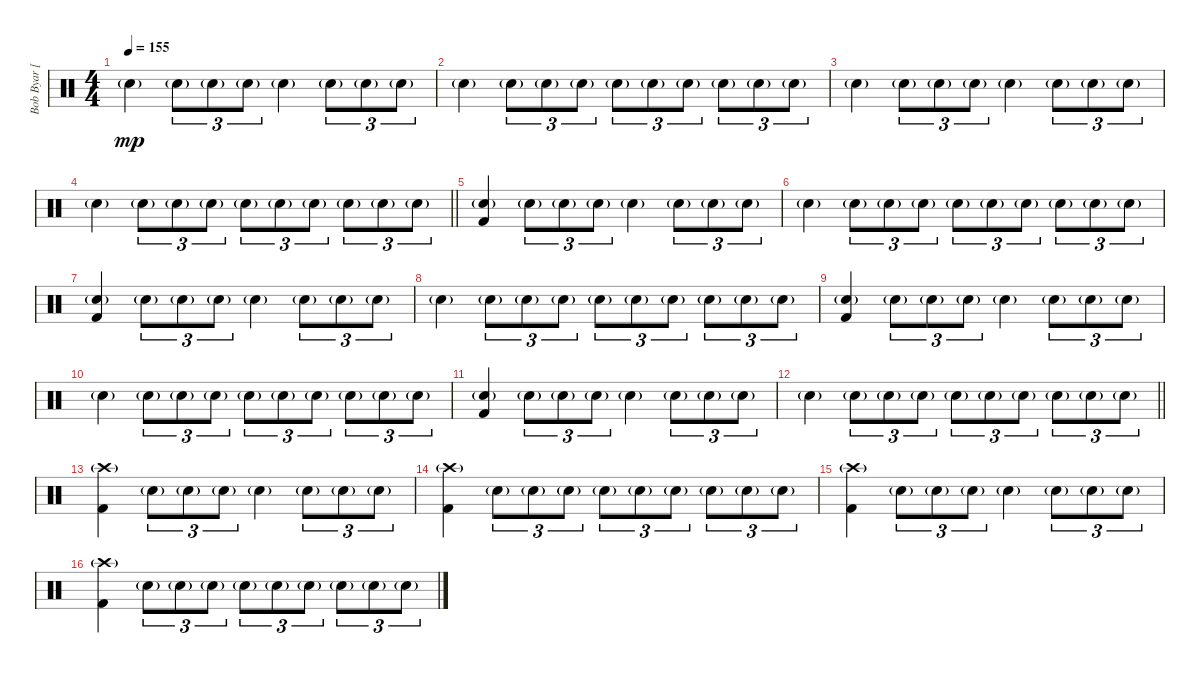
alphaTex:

\track ("Bob Byar [Drums]" "Bob Byar [") {instrument percussion}
\staff {score}
\articulation defaults
\ts (4 4)
\tempo 155
\clef neutral
\ks c "Snare (hit) 2"{g}.4{dy mp} "Snare (hit) 2"{g}.8{tu (3 2)} "Snare (hit) 2"{g}.8{tu (3 2)} "Snare (hit) 2"{g}.8{tu (3 2)} "Snare (hit) 2"{g}.4 "Snare (hit) 2"{g}.8{tu (3 2)} "Snare (hit) 2"{g}.8{tu (3 2)} "Snare (hit) 2"{g}.8{tu (3 2)}
|
"Snare (hit) 2"{g}.4 "Snare (hit) 2"{g}.8{tu (3 2)} "Snare (hit) 2"{g}.8{tu (3 2)} "Snare (hit) 2"{g}.8{tu (3 2)} "Snare (hit) 2"{g}.8{tu (3 2)} "Snare (hit) 2"{g}.8{tu (3 2)} "Snare (hit) 2"{g}.8{tu (3 2)} "Snare (hit) 2"{g}.8{tu (3 2)} "Snare (hit) 2"{g}.8{tu (3 2)} "Snare (hit) 2"{g}.8{tu (3 2)} |
"Snare (hit) 2"{g}.4 "Snare (hit) 2"{g}.8{tu (3 2)} "Snare (hit) 2"{g}.8{tu (3 2)} "Snare (hit) 2"{g}.8{tu (3 2)} "Snare (hit) 2"{g}.4 "Snare (hit) 2"{g}.8{tu (3 2)} "Snare (hit) 2"{g}.8{tu (3 2)} "Snare (hit) 2"{g}.8{tu (3 2)} |
\barLineRight lightlight "Snare (hit) 2"{g}.4 "Snare (hit) 2"{g}.8{tu (3 2)} "Snare (hit) 2"{g}.8{tu (3 2)} "Snare (hit) 2"{g}.8{tu (3 2)} "Snare (hit) 2"{g}.8{tu (3 2)} "Snare (hit) 2"{g}.8{tu (3 2)} "Snare (hit) 2"{g}.8{tu (3 2)} "Snare (hit) 2"{g}.8{tu (3 2)} "Snare (hit) 2"{g}.8{tu (3 2)} "Snare (hit) 2"{g}.8{tu (3 2)}
|
("Snare (hit) 2"{g} "Kick (hit) 2").4 "Snare (hit) 2"{g}.8{tu (3 2)} "Snare (hit) 2"{g}.8{tu (3 2)} "Snare (hit) 2"{g}.8{tu (3 2)} "Snare (hit) 2"{g}.4 "Snare (hit) 2"{g}.8{tu (3 2)} "Snare (hit) 2"{g}.8{tu (3 2)} "Snare (hit) 2"{g}.8{tu (3 2)} |
"Snare (hit) 2"{g}.4 "Snare (hit) 2"{g}.8{tu (3 2)} "Snare (hit) 2"{g}.8{tu (3 2)} "Snare (hit) 2"{g}.8{tu (3 2)} "Snare (hit) 2"{g}.8{tu (3 2)} "Snare (hit) 2"{g}.8{tu (3 2)} "Snare (hit) 2"{g}.8{tu (3 2)} "Snare (hit) 2"{g}.8{tu (3 2)} "Snare (hit) 2"{g}.8{tu (3 2)} "Snare (hit) 2"{g}.8{tu (3 2)} |
("Snare (hit) 2"{g} "Kick (hit) 2").4 "Snare (hit) 2"{g}.8{tu (3 2)} "Snare (hit) 2"{g}.8{tu (3 2)} "Snare (hit) 2"{g}.8{tu (3 2)} "Snare (hit) 2"{g}.4 "Snare (hit) 2"{g}.8{tu (3 2)} "Snare (hit) 2"{g}.8{tu (3 2)} "Snare (hit) 2"{g}.8{tu (3 2)} |
"Snare (hit) 2"{g}.4 "Snare (hit) 2"{g}.8{tu (3 2)} "Snare (hit) 2"{g}.8{tu (3 2)} "Snare (hit) 2"{g}.8{tu (3 2)} "Snare (hit) 2"{g}.8{tu (3 2)} "Snare (hit) 2"{g}.8{tu (3 2)} "Snare (hit) 2"{g}.8{tu (3 2)} "Snare (hit) 2"{g}.8{tu (3 2)} "Snare (hit) 2"{g}.8{tu (3 2)} "Snare (hit) 2"{g}.8{tu (3 2)} |
("Snare (hit) 2"{g} "Kick (hit) 2").4 "Snare (hit) 2"{g}.8{tu (3 2)} "Snare (hit) 2"{g}.8{tu (3 2)} "Snare (hit) 2"{g}.8{tu (3 2)} "Snare (hit) 2"{g}.4 "Snare (hit) 2"{g}.8{tu (3 2)} "Snare (hit) 2"{g}.8{tu (3 2)} "Snare (hit) 2"{g}.8{tu (3 2)} |
"Snare (hit) 2"{g}.4 "Snare (hit) 2"{g}.8{tu (3 2)} "Snare (hit) 2"{g}.8{tu (3 2)} "Snare (hit) 2"{g}.8{tu (3 2)} "Snare (hit) 2"{g}.8{tu (3 2)} "Snare (hit) 2"{g}.8{tu (3 2)} "Snare (hit) 2"{g}.8{tu (3 2)} "Snare (hit) 2"{g}.8{tu (3 2)} "Snare (hit) 2"{g}.8{tu (3 2)} "Snare (hit) 2"{g}.8{tu (3 2)} |
("Snare (hit) 2"{g} "Kick (hit) 2").4 "Snare (hit) 2"{g}.8{tu (3 2)} "Snare (hit) 2"{g}.8{tu (3 2)} "Snare (hit) 2"{g}.8{tu (3 2)} "Snare (hit) 2"{g}.4 "Snare (hit) 2"{g}.8{tu (3 2)} "Snare (hit) 2"{g}.8{tu (3 2)} "Snare (hit) 2"{g}.8{tu (3 2)} |
\barLineRight lightlight "Snare (hit) 2"{g}.4 "Snare (hit) 2"{g}.8{tu (3 2)} "Snare (hit) 2"{g}.8{tu (3 2)} "Snare (hit) 2"{g}.8{tu (3 2)} "Snare (hit) 2"{g}.8{tu (3 2)} "Snare (hit) 2"{g}.8{tu (3 2)} "Snare (hit) 2"{g}.8{tu (3 2)} "Snare (hit) 2"{g}.8{tu (3 2)} "Snare (hit) 2"{g}.8{tu (3 2)} "Snare (hit) 2"{g}.8{tu (3 2)}
|
("Crash high (hit)"{g} "Kick (hit) 2").4 "Snare (hit) 2"{g}.8{tu (3 2)} "Snare (hit) 2"{g}.8{tu (3 2)} "Snare (hit) 2"{g}.8{tu (3 2)} "Snare (hit) 2"{g}.4 "Snare (hit) 2"{g}.8{tu (3 2)} "Snare (hit) 2"{g}.8{tu (3 2)} "Snare (hit) 2"{g}.8{tu (3 2)} |
("Crash high (hit)"{g} "Kick (hit) 2").4 "Snare (hit) 2"{g}.8{tu (3 2)} "Snare (hit) 2"{g}.8{tu (3 2)} "Snare (hit) 2"{g}.8{tu (3 2)} "Snare (hit) 2"{g}.8{tu (3 2)} "Snare (hit) 2"{g}.8{tu (3 2)} "Snare (hit) 2"{g}.8{tu (3 2)} "Snare (hit) 2"{g}.8{tu (3 2)} "Snare (hit) 2"{g}.8{tu (3 2)} "Snare (hit) 2"{g}.8{tu (3 2)} |
("Crash high (hit)"{g} "Kick (hit) 2").4 "Snare (hit) 2"{g}.8{tu (3 2)} "Snare (hit) 2"{g}.8{tu (3 2)} "Snare (hit) 2"{g}.8{tu (3 2)} "Snare (hit) 2"{g}.4 "Snare (hit) 2"{g}.8{tu (3 2)} "Snare (hit) 2"{g}.8{tu (3 2)} "Snare (hit) 2"{g}.8{tu (3 2)} |
("Crash high (hit)"{g} "Kick (hit) 2").4 "Snare (hit) 2"{g}.8{tu (3 2)} "Snare (hit) 2"{g}.8{tu (3 2)} "Snare (hit) 2"{g}.8{tu (3 2)} "Snare (hit) 2"{g}.8{tu (3 2)} "Snare (hit) 2"{g}.8{tu (3 2)} "Snare (hit) 2"{g}.8{tu (3 2)} "Snare (hit) 2"{g}.8{tu (3 2)} "Snare (hit) 2"{g}.8{tu (3 2)} "Snare (hit) 2"{g}.8{tu (3 2)}
